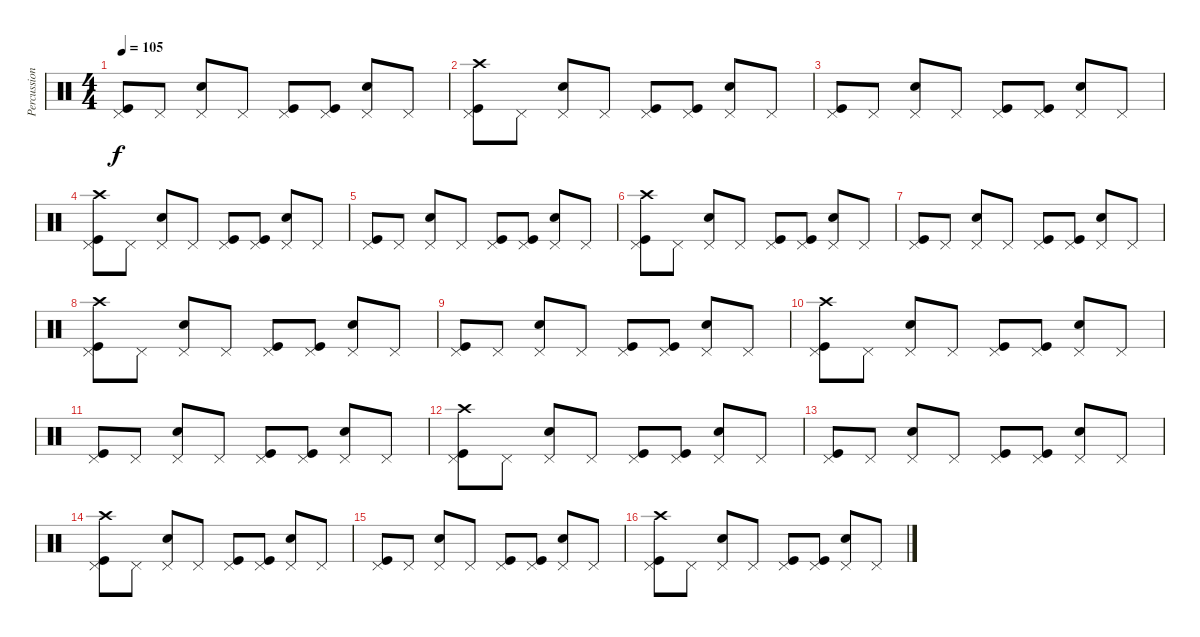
\track ("Percussion" "Percussion") {instrument percussion}
\staff {score}
\articulation defaults
\ts (4 4)
\tempo 105
\clef neutral
\ks c
("Pedal Hi-Hat (hit)" "Kick (hit)").8{dy f} "Pedal Hi-Hat (hit)".8 ("Pedal Hi-Hat (hit)" "Snare (hit) 2").8 "Pedal Hi-Hat (hit)".8 ("Pedal Hi-Hat (hit)" "Kick (hit)").8 ("Pedal Hi-Hat (hit)" "Kick (hit)").8 ("Pedal Hi-Hat (hit)" "Snare (hit) 2").8 "Pedal Hi-Hat (hit)".8 |
("Pedal Hi-Hat (hit)" "Crash high (hit)" "Kick (hit)").8 "Pedal Hi-Hat (hit)".8 ("Pedal Hi-Hat (hit)" "Snare (hit) 2").8 "Pedal Hi-Hat (hit)".8 ("Pedal Hi-Hat (hit)" "Kick (hit)").8 ("Pedal Hi-Hat (hit)" "Kick (hit)").8 ("Pedal Hi-Hat (hit)" "Snare (hit) 2").8 "Pedal Hi-Hat (hit)".8 |
("Pedal Hi-Hat (hit)" "Kick (hit)").8 "Pedal Hi-Hat (hit)".8 ("Pedal Hi-Hat (hit)" "Snare (hit) 2").8 "Pedal Hi-Hat (hit)".8 ("Pedal Hi-Hat (hit)" "Kick (hit)").8 ("Pedal Hi-Hat (hit)" "Kick (hit)").8 ("Pedal Hi-Hat (hit)" "Snare (hit) 2").8 "Pedal Hi-Hat (hit)".8 |
("Pedal Hi-Hat (hit)" "Crash high (hit)" "Kick (hit)").8 "Pedal Hi-Hat (hit)".8 ("Pedal Hi-Hat (hit)" "Snare (hit) 2").8 "Pedal Hi-Hat (hit)".8 ("Pedal Hi-Hat (hit)" "Kick (hit)").8 ("Pedal Hi-Hat (hit)" "Kick (hit)").8 ("Pedal Hi-Hat (hit)" "Snare (hit) 2").8 "Pedal Hi-Hat (hit)".8 |
("Pedal Hi-Hat (hit)" "Kick (hit)").8 "Pedal Hi-Hat (hit)".8 ("Pedal Hi-Hat (hit)" "Snare (hit) 2").8 "Pedal Hi-Hat (hit)".8 ("Pedal Hi-Hat (hit)" "Kick (hit)").8 ("Pedal Hi-Hat (hit)" "Kick (hit)").8 ("Pedal Hi-Hat (hit)" "Snare (hit) 2").8 "Pedal Hi-Hat (hit)".8 |
("Pedal Hi-Hat (hit)" "Crash high (hit)" "Kick (hit)").8 "Pedal Hi-Hat (hit)".8 ("Pedal Hi-Hat (hit)" "Snare (hit) 2").8 "Pedal Hi-Hat (hit)".8 ("Pedal Hi-Hat (hit)" "Kick (hit)").8 ("Pedal Hi-Hat (hit)" "Kick (hit)").8 ("Pedal Hi-Hat (hit)" "Snare (hit) 2").8 "Pedal Hi-Hat (hit)".8 |
("Pedal Hi-Hat (hit)" "Kick (hit)").8 "Pedal Hi-Hat (hit)".8 ("Pedal Hi-Hat (hit)" "Snare (hit) 2").8 "Pedal Hi-Hat (hit)".8 ("Pedal Hi-Hat (hit)" "Kick (hit)").8 ("Pedal Hi-Hat (hit)" "Kick (hit)").8 ("Pedal Hi-Hat (hit)" "Snare (hit) 2").8 "Pedal Hi-Hat (hit)".8 |
("Pedal Hi-Hat (hit)" "Crash high (hit)" "Kick (hit)").8 "Pedal Hi-Hat (hit)".8 ("Pedal Hi-Hat (hit)" "Snare (hit) 2").8 "Pedal Hi-Hat (hit)".8 ("Pedal Hi-Hat (hit)" "Kick (hit)").8 ("Pedal Hi-Hat (hit)" "Kick (hit)").8 ("Pedal Hi-Hat (hit)" "Snare (hit) 2").8 "Pedal Hi-Hat (hit)".8 |
("Pedal Hi-Hat (hit)" "Kick (hit)").8 "Pedal Hi-Hat (hit)".8 ("Pedal Hi-Hat (hit)" "Snare (hit) 2").8 "Pedal Hi-Hat (hit)".8 ("Pedal Hi-Hat (hit)" "Kick (hit)").8 ("Pedal Hi-Hat (hit)" "Kick (hit)").8 ("Pedal Hi-Hat (hit)" "Snare (hit) 2").8 "Pedal Hi-Hat (hit)".8 |
("Pedal Hi-Hat (hit)" "Crash high (hit)" "Kick (hit)").8 "Pedal Hi-Hat (hit)".8 ("Pedal Hi-Hat (hit)" "Snare (hit) 2").8 "Pedal Hi-Hat (hit)".8 ("Pedal Hi-Hat (hit)" "Kick (hit)").8 ("Pedal Hi-Hat (hit)" "Kick (hit)").8 ("Pedal Hi-Hat (hit)" "Snare (hit) 2").8 "Pedal Hi-Hat (hit)".8 |
("Pedal Hi-Hat (hit)" "Kick (hit)").8 "Pedal Hi-Hat (hit)".8 ("Pedal Hi-Hat (hit)" "Snare (hit) 2").8 "Pedal Hi-Hat (hit)".8 ("Pedal Hi-Hat (hit)" "Kick (hit)").8 ("Pedal Hi-Hat (hit)" "Kick (hit)").8 ("Pedal Hi-Hat (hit)" "Snare (hit) 2").8 "Pedal Hi-Hat (hit)".8 |
("Pedal Hi-Hat (hit)" "Crash high (hit)" "Kick (hit)").8 "Pedal Hi-Hat (hit)".8 ("Pedal Hi-Hat (hit)" "Snare (hit) 2").8 "Pedal Hi-Hat (hit)".8 ("Pedal Hi-Hat (hit)" "Kick (hit)").8 ("Pedal Hi-Hat (hit)" "Kick (hit)").8 ("Pedal Hi-Hat (hit)" "Snare (hit) 2").8 "Pedal Hi-Hat (hit)".8 |
("Pedal Hi-Hat (hit)" "Kick (hit)").8 "Pedal Hi-Hat (hit)".8 ("Pedal Hi-Hat (hit)" "Snare (hit) 2").8 "Pedal Hi-Hat (hit)".8 ("Pedal Hi-Hat (hit)" "Kick (hit)").8 ("Pedal Hi-Hat (hit)" "Kick (hit)").8 ("Pedal Hi-Hat (hit)" "Snare (hit) 2").8 "Pedal Hi-Hat (hit)".8 |
("Pedal Hi-Hat (hit)" "Crash high (hit)" "Kick (hit)").8 "Pedal Hi-Hat (hit)".8 ("Pedal Hi-Hat (hit)" "Snare (hit) 2").8 "Pedal Hi-Hat (hit)".8 ("Pedal Hi-Hat (hit)" "Kick (hit)").8 ("Pedal Hi-Hat (hit)" "Kick (hit)").8 ("Pedal Hi-Hat (hit)" "Snare (hit) 2").8 "Pedal Hi-Hat (hit)".8 |
("Pedal Hi-Hat (hit)" "Kick (hit)").8 "Pedal Hi-Hat (hit)".8 ("Pedal Hi-Hat (hit)" "Snare (hit) 2").8 "Pedal Hi-Hat (hit)".8 ("Pedal Hi-Hat (hit)" "Kick (hit)").8 ("Pedal Hi-Hat (hit)" "Kick (hit)").8 ("Pedal Hi-Hat (hit)" "Snare (hit) 2").8 "Pedal Hi-Hat (hit)".8 |
("Pedal Hi-Hat (hit)" "Crash high (hit)" "Kick (hit)").8 "Pedal Hi-Hat (hit)".8 ("Pedal Hi-Hat (hit)" "Snare (hit) 2").8 "Pedal Hi-Hat (hit)".8 ("Pedal Hi-Hat (hit)" "Kick (hit)").8 ("Pedal Hi-Hat (hit)" "Kick (hit)").8 ("Pedal Hi-Hat (hit)" "Snare (hit) 2").8 "Pedal Hi-Hat (hit)".8
